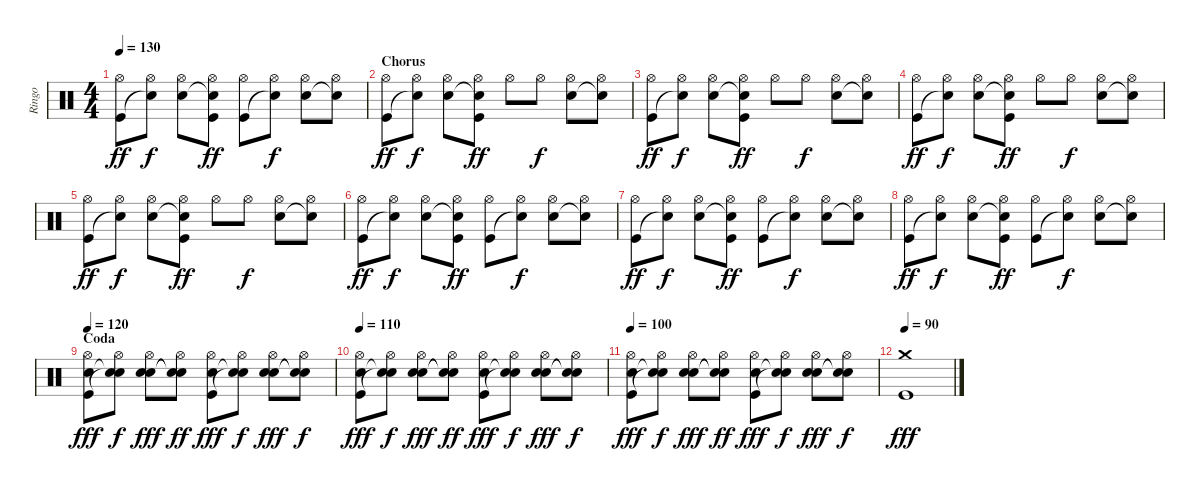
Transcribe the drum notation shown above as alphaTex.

\track ("Ringo" "Ringo") {instrument percussion}
\staff {score}
\articulation defaults
\ts (4 4)
\tempo 130
\clef neutral
\ks c
("Hi-Hat (open)" "Kick (hit)").8{dy ff} ("Hi-Hat (open)" "Snare (hit)"{t}).8{dy f} ("Hi-Hat (open)" "Snare (hit) 2").8 ("Hi-Hat (open)" "Snare (hit)"{t} "Kick (hit)").8{dy ff} ("Hi-Hat (open)" "Kick (hit)").8 ("Hi-Hat (open)" "Snare (hit)"{t}).8{dy f} ("Hi-Hat (open)" "Snare (hit) 2").8 ("Hi-Hat (open)" "Snare (hit)"{t}).8 |
\section ("" "Chorus")
("Hi-Hat (open)" "Kick (hit)").8{dy ff} ("Hi-Hat (open)" "Snare (hit)"{t}).8{dy f} ("Hi-Hat (open)" "Snare (hit) 2").8 ("Hi-Hat (open)" "Snare (hit)"{t} "Kick (hit)").8{dy ff} "Hi-Hat (open)".8 "Hi-Hat (open)".8{dy f} ("Hi-Hat (open)" "Snare (hit) 2").8 ("Hi-Hat (open)" "Snare (hit)"{t}).8 |
("Hi-Hat (open)" "Kick (hit)").8{dy ff} ("Hi-Hat (open)" "Snare (hit)"{t}).8{dy f} ("Hi-Hat (open)" "Snare (hit) 2").8 ("Hi-Hat (open)" "Snare (hit)"{t} "Kick (hit)").8{dy ff} "Hi-Hat (open)".8 "Hi-Hat (open)".8{dy f} ("Hi-Hat (open)" "Snare (hit) 2").8 ("Hi-Hat (open)" "Snare (hit)"{t}).8 |
("Hi-Hat (open)" "Kick (hit)").8{dy ff} ("Hi-Hat (open)" "Snare (hit)"{t}).8{dy f} ("Hi-Hat (open)" "Snare (hit) 2").8 ("Hi-Hat (open)" "Snare (hit)"{t} "Kick (hit)").8{dy ff} "Hi-Hat (open)".8 "Hi-Hat (open)".8{dy f} ("Hi-Hat (open)" "Snare (hit) 2").8 ("Hi-Hat (open)" "Snare (hit)"{t}).8 |
("Hi-Hat (open)" "Kick (hit)").8{dy ff} ("Hi-Hat (open)" "Snare (hit)"{t}).8{dy f} ("Hi-Hat (open)" "Snare (hit) 2").8 ("Hi-Hat (open)" "Snare (hit)"{t} "Kick (hit)").8{dy ff} "Hi-Hat (open)".8 "Hi-Hat (open)".8{dy f} ("Hi-Hat (open)" "Snare (hit) 2").8 ("Hi-Hat (open)" "Snare (hit)"{t}).8 |
("Hi-Hat (open)" "Kick (hit)").8{dy ff} ("Hi-Hat (open)" "Snare (hit)"{t}).8{dy f} ("Hi-Hat (open)" "Snare (hit) 2").8 ("Hi-Hat (open)" "Snare (hit)"{t} "Kick (hit)").8{dy ff} ("Hi-Hat (open)" "Kick (hit)").8 ("Hi-Hat (open)" "Snare (hit)"{t}).8{dy f} ("Hi-Hat (open)" "Snare (hit) 2").8 ("Hi-Hat (open)" "Snare (hit)"{t}).8 |
("Hi-Hat (open)" "Kick (hit)").8{dy ff} ("Hi-Hat (open)" "Snare (hit)"{t}).8{dy f} ("Hi-Hat (open)" "Snare (hit) 2").8 ("Hi-Hat (open)" "Snare (hit)"{t} "Kick (hit)").8{dy ff} ("Hi-Hat (open)" "Kick (hit)").8 ("Hi-Hat (open)" "Snare (hit)"{t}).8{dy f} ("Hi-Hat (open)" "Snare (hit) 2").8 ("Hi-Hat (open)" "Snare (hit)"{t}).8 |
("Hi-Hat (open)" "Kick (hit)").8{dy ff} ("Hi-Hat (open)" "Snare (hit)"{t}).8{dy f} ("Hi-Hat (open)" "Snare (hit) 2").8 ("Hi-Hat (open)" "Snare (hit)"{t} "Kick (hit)").8{dy ff} ("Hi-Hat (open)" "Kick (hit)").8 ("Hi-Hat (open)" "Snare (hit)"{t}).8{dy f} ("Hi-Hat (open)" "Snare (hit) 2").8 ("Hi-Hat (open)" "Snare (hit)"{t}).8 |
\section ("" "Coda")
\tempo 120
("Hi-Hat (open)" "Hand Clap (hit)" "Kick (hit)").8{dy fff} ("Hi-Hat (open)" "Snare (hit)"{t} "Snare (hit)"{t}).8{dy f} ("Hi-Hat (open)" "Hand Clap (hit)" "Snare (hit) 2").8{dy fff} ("Hi-Hat (open)" "Snare (hit)"{t} "Snare (hit)"{t}).8{dy ff} ("Hi-Hat (open)" "Hand Clap (hit)" "Kick (hit)").8{dy fff} ("Hi-Hat (open)" "Snare (hit)"{t} "Snare (hit)"{t}).8{dy f} ("Hi-Hat (open)" "Hand Clap (hit)" "Snare (hit) 2").8{dy fff} ("Hi-Hat (open)" "Snare (hit)"{t} "Snare (hit)"{t}).8{dy f} |
\tempo 110
("Hi-Hat (open)" "Hand Clap (hit)" "Kick (hit)").8{dy fff} ("Hi-Hat (open)" "Snare (hit)"{t} "Snare (hit)"{t}).8{dy f} ("Hi-Hat (open)" "Hand Clap (hit)" "Snare (hit) 2").8{dy fff} ("Hi-Hat (open)" "Snare (hit)"{t} "Snare (hit)"{t}).8{dy ff} ("Hi-Hat (open)" "Hand Clap (hit)" "Kick (hit)").8{dy fff} ("Hi-Hat (open)" "Snare (hit)"{t} "Snare (hit)"{t}).8{dy f} ("Hi-Hat (open)" "Hand Clap (hit)" "Snare (hit) 2").8{dy fff} ("Hi-Hat (open)" "Snare (hit)"{t} "Snare (hit)"{t}).8{dy f} |
\tempo 100
("Hi-Hat (open)" "Hand Clap (hit)" "Kick (hit)").8{dy fff} ("Hi-Hat (open)" "Snare (hit)"{t} "Snare (hit)"{t}).8{dy f} ("Hi-Hat (open)" "Hand Clap (hit)" "Snare (hit) 2").8{dy fff} ("Hi-Hat (open)" "Snare (hit)"{t} "Snare (hit)"{t}).8{dy ff} ("Hi-Hat (open)" "Hand Clap (hit)" "Kick (hit)").8{dy fff} ("Hi-Hat (open)" "Snare (hit)"{t} "Snare (hit)"{t}).8{dy f} ("Hi-Hat (open)" "Hand Clap (hit)" "Snare (hit) 2").8{dy fff} ("Hi-Hat (open)" "Snare (hit)"{t} "Snare (hit)"{t}).8{dy f} |
\tempo 90
("Crash medium (hit)" "Kick (hit)").1{dy fff}
